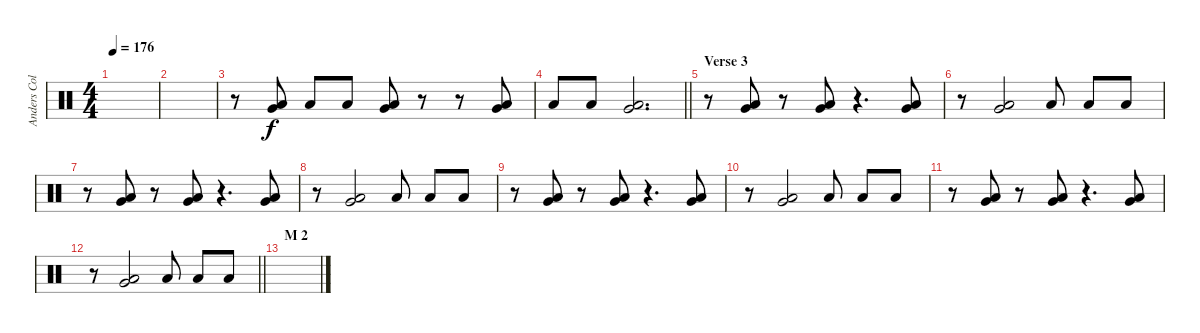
\track ("Anders Colsefni" "Anders Col") {instrument percussion}
\staff {score}
\articulation defaults
\ts (4 4)
\tempo 176
\clef neutral
\ks c
|
|
r.8 ("Very Low Tom (hit)" "Low Floor Tom (hit)").8 "Low Floor Tom (hit)".8 "Low Floor Tom (hit)".8 ("Very Low Tom (hit)" "Low Floor Tom (hit)").8 r.8 r.8 ("Very Low Tom (hit)" "Low Floor Tom (hit)").8 |
\barLineRight lightlight "Low Floor Tom (hit)".8 "Low Floor Tom (hit)".8
("Very Low Tom (hit)" "Low Floor Tom (hit)").2{d} |
\section ("" "Verse 3")
r.8 ("Very Low Tom (hit)" "Low Floor Tom (hit)").8 r.8 ("Very Low Tom (hit)" "Low Floor Tom (hit)").8 r.4{d} ("Very Low Tom (hit)" "Low Floor Tom (hit)").8 |
r.8 ("Very Low Tom (hit)" "Low Floor Tom (hit)").2 "Low Floor Tom (hit)".8 "Low Floor Tom (hit)".8 "Low Floor Tom (hit)".8 |
r.8 ("Very Low Tom (hit)" "Low Floor Tom (hit)").8 r.8 ("Very Low Tom (hit)" "Low Floor Tom (hit)").8 r.4{d} ("Very Low Tom (hit)" "Low Floor Tom (hit)").8 |
r.8 ("Very Low Tom (hit)" "Low Floor Tom (hit)").2 "Low Floor Tom (hit)".8 "Low Floor Tom (hit)".8 "Low Floor Tom (hit)".8 |
r.8 ("Very Low Tom (hit)" "Low Floor Tom (hit)").8 r.8 ("Very Low Tom (hit)" "Low Floor Tom (hit)").8 r.4{d} ("Very Low Tom (hit)" "Low Floor Tom (hit)").8 |
r.8 ("Very Low Tom (hit)" "Low Floor Tom (hit)").2 "Low Floor Tom (hit)".8 "Low Floor Tom (hit)".8 "Low Floor Tom (hit)".8 |
r.8 ("Very Low Tom (hit)" "Low Floor Tom (hit)").8 r.8 ("Very Low Tom (hit)" "Low Floor Tom (hit)").8 r.4{d} ("Very Low Tom (hit)" "Low Floor Tom (hit)").8 |
\barLineRight lightlight
r.8 ("Very Low Tom (hit)" "Low Floor Tom (hit)").2 "Low Floor Tom (hit)".8 "Low Floor Tom (hit)".8 "Low Floor Tom (hit)".8 |
\section ("" "M 2")
